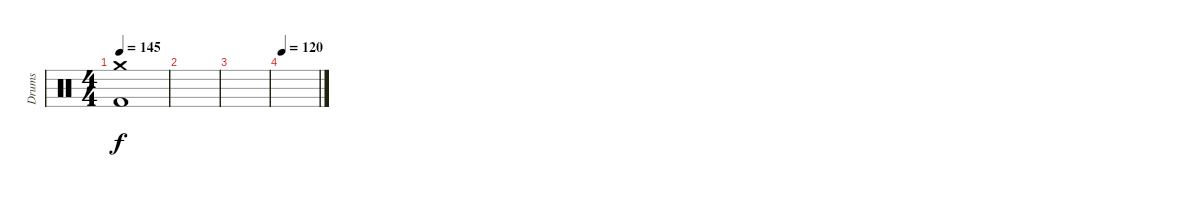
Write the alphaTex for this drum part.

\track ("Drums" "Drums") {instrument percussion}
\staff {score}
\articulation defaults
\ts (4 4)
\tempo 145
\clef neutral
\ks c
("Crash medium (hit)" "Kick (hit) 2").1{dy f} |
|
|
\tempo 120
